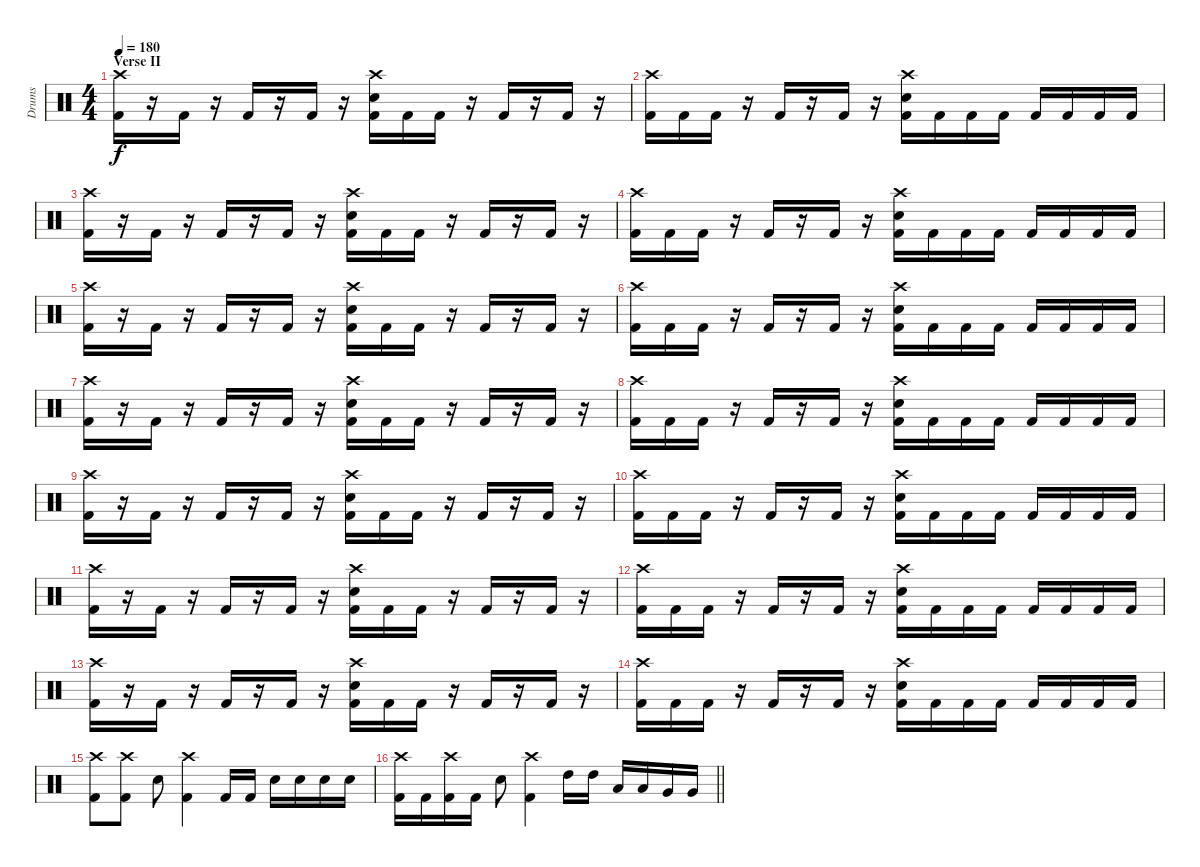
\track ("Drums" "Drums") {instrument percussion}
\staff {score}
\articulation defaults
\ts (4 4)
\section ("" "Verse II")
\tempo 180
\clef neutral
\ks c
("Crash high (hit)" "Kick (hit) 2").16{dy f} r.16 "Kick (hit) 2".16 r.16 "Kick (hit) 2".16 r.16 "Kick (hit) 2".16 r.16 ("Crash high (hit)" "Electric Snare (hit)" "Kick (hit) 2").16 "Kick (hit) 2".16 "Kick (hit) 2".16 r.16 "Kick (hit) 2".16 r.16 "Kick (hit) 2".16 r.16 |
("Crash high (hit)" "Kick (hit) 2").16 "Kick (hit) 2".16 "Kick (hit) 2".16 r.16 "Kick (hit) 2".16 r.16 "Kick (hit) 2".16 r.16 ("Crash high (hit)" "Electric Snare (hit)" "Kick (hit) 2").16 "Kick (hit) 2".16 "Kick (hit) 2".16 "Kick (hit) 2".16 "Kick (hit) 2".16 "Kick (hit) 2".16 "Kick (hit) 2".16 "Kick (hit) 2".16 |
("Crash high (hit)" "Kick (hit) 2").16 r.16 "Kick (hit) 2".16 r.16 "Kick (hit) 2".16 r.16 "Kick (hit) 2".16 r.16 ("Crash high (hit)" "Electric Snare (hit)" "Kick (hit) 2").16 "Kick (hit) 2".16 "Kick (hit) 2".16 r.16 "Kick (hit) 2".16 r.16 "Kick (hit) 2".16 r.16 |
("Crash high (hit)" "Kick (hit) 2").16 "Kick (hit) 2".16 "Kick (hit) 2".16 r.16 "Kick (hit) 2".16 r.16 "Kick (hit) 2".16 r.16 ("Crash high (hit)" "Electric Snare (hit)" "Kick (hit) 2").16 "Kick (hit) 2".16 "Kick (hit) 2".16 "Kick (hit) 2".16 "Kick (hit) 2".16 "Kick (hit) 2".16 "Kick (hit) 2".16 "Kick (hit) 2".16 |
("Crash high (hit)" "Kick (hit) 2").16 r.16 "Kick (hit) 2".16 r.16 "Kick (hit) 2".16 r.16 "Kick (hit) 2".16 r.16 ("Crash high (hit)" "Electric Snare (hit)" "Kick (hit) 2").16 "Kick (hit) 2".16 "Kick (hit) 2".16 r.16 "Kick (hit) 2".16 r.16 "Kick (hit) 2".16 r.16 |
("Crash high (hit)" "Kick (hit) 2").16 "Kick (hit) 2".16 "Kick (hit) 2".16 r.16 "Kick (hit) 2".16 r.16 "Kick (hit) 2".16 r.16 ("Crash high (hit)" "Electric Snare (hit)" "Kick (hit) 2").16 "Kick (hit) 2".16 "Kick (hit) 2".16 "Kick (hit) 2".16 "Kick (hit) 2".16 "Kick (hit) 2".16 "Kick (hit) 2".16 "Kick (hit) 2".16 |
("Crash high (hit)" "Kick (hit) 2").16 r.16 "Kick (hit) 2".16 r.16 "Kick (hit) 2".16 r.16 "Kick (hit) 2".16 r.16 ("Crash high (hit)" "Electric Snare (hit)" "Kick (hit) 2").16 "Kick (hit) 2".16 "Kick (hit) 2".16 r.16 "Kick (hit) 2".16 r.16 "Kick (hit) 2".16 r.16 |
("Crash high (hit)" "Kick (hit) 2").16 "Kick (hit) 2".16 "Kick (hit) 2".16 r.16 "Kick (hit) 2".16 r.16 "Kick (hit) 2".16 r.16 ("Crash high (hit)" "Electric Snare (hit)" "Kick (hit) 2").16 "Kick (hit) 2".16 "Kick (hit) 2".16 "Kick (hit) 2".16 "Kick (hit) 2".16 "Kick (hit) 2".16 "Kick (hit) 2".16 "Kick (hit) 2".16 |
("Crash high (hit)" "Kick (hit) 2").16 r.16 "Kick (hit) 2".16 r.16 "Kick (hit) 2".16 r.16 "Kick (hit) 2".16 r.16 ("Crash high (hit)" "Electric Snare (hit)" "Kick (hit) 2").16 "Kick (hit) 2".16 "Kick (hit) 2".16 r.16 "Kick (hit) 2".16 r.16 "Kick (hit) 2".16 r.16 |
("Crash high (hit)" "Kick (hit) 2").16 "Kick (hit) 2".16 "Kick (hit) 2".16 r.16 "Kick (hit) 2".16 r.16 "Kick (hit) 2".16 r.16 ("Crash high (hit)" "Electric Snare (hit)" "Kick (hit) 2").16 "Kick (hit) 2".16 "Kick (hit) 2".16 "Kick (hit) 2".16 "Kick (hit) 2".16 "Kick (hit) 2".16 "Kick (hit) 2".16 "Kick (hit) 2".16 |
("Crash high (hit)" "Kick (hit) 2").16 r.16 "Kick (hit) 2".16 r.16 "Kick (hit) 2".16 r.16 "Kick (hit) 2".16 r.16 ("Crash high (hit)" "Electric Snare (hit)" "Kick (hit) 2").16 "Kick (hit) 2".16 "Kick (hit) 2".16 r.16 "Kick (hit) 2".16 r.16 "Kick (hit) 2".16 r.16 |
("Crash high (hit)" "Kick (hit) 2").16 "Kick (hit) 2".16 "Kick (hit) 2".16 r.16 "Kick (hit) 2".16 r.16 "Kick (hit) 2".16 r.16 ("Crash high (hit)" "Electric Snare (hit)" "Kick (hit) 2").16 "Kick (hit) 2".16 "Kick (hit) 2".16 "Kick (hit) 2".16 "Kick (hit) 2".16 "Kick (hit) 2".16 "Kick (hit) 2".16 "Kick (hit) 2".16 |
("Crash high (hit)" "Kick (hit) 2").16 r.16 "Kick (hit) 2".16 r.16 "Kick (hit) 2".16 r.16 "Kick (hit) 2".16 r.16 ("Crash high (hit)" "Electric Snare (hit)" "Kick (hit) 2").16 "Kick (hit) 2".16 "Kick (hit) 2".16 r.16 "Kick (hit) 2".16 r.16 "Kick (hit) 2".16 r.16 |
("Crash high (hit)" "Kick (hit) 2").16 "Kick (hit) 2".16 "Kick (hit) 2".16 r.16 "Kick (hit) 2".16 r.16 "Kick (hit) 2".16 r.16 ("Crash high (hit)" "Electric Snare (hit)" "Kick (hit) 2").16 "Kick (hit) 2".16 "Kick (hit) 2".16 "Kick (hit) 2".16 "Kick (hit) 2".16 "Kick (hit) 2".16 "Kick (hit) 2".16 "Kick (hit) 2".16 |
("Crash high (hit)" "Kick (hit) 2").8 ("Crash high (hit)" "Kick (hit) 2").8 "Electric Snare (hit)".8 ("Crash high (hit)" "Kick (hit) 2").4 "Kick (hit) 2".16 "Kick (hit) 2".16 "Electric Snare (hit)".16 "Electric Snare (hit)".16 "Electric Snare (hit)".16 "Electric Snare (hit)".16 |
\barLineRight lightlight
("Crash high (hit)" "Kick (hit) 2").16 "Kick (hit) 2".16 ("Crash high (hit)" "Kick (hit) 2").16 "Kick (hit) 2".16 "Electric Snare (hit)".8 ("Crash high (hit)" "Kick (hit) 2").4 "High Tom (hit)".16 "High Tom (hit)".16 "Low Tom (hit)".16 "Low Tom (hit)".16 "Very Low Tom (hit)".16 "Very Low Tom (hit)".16
